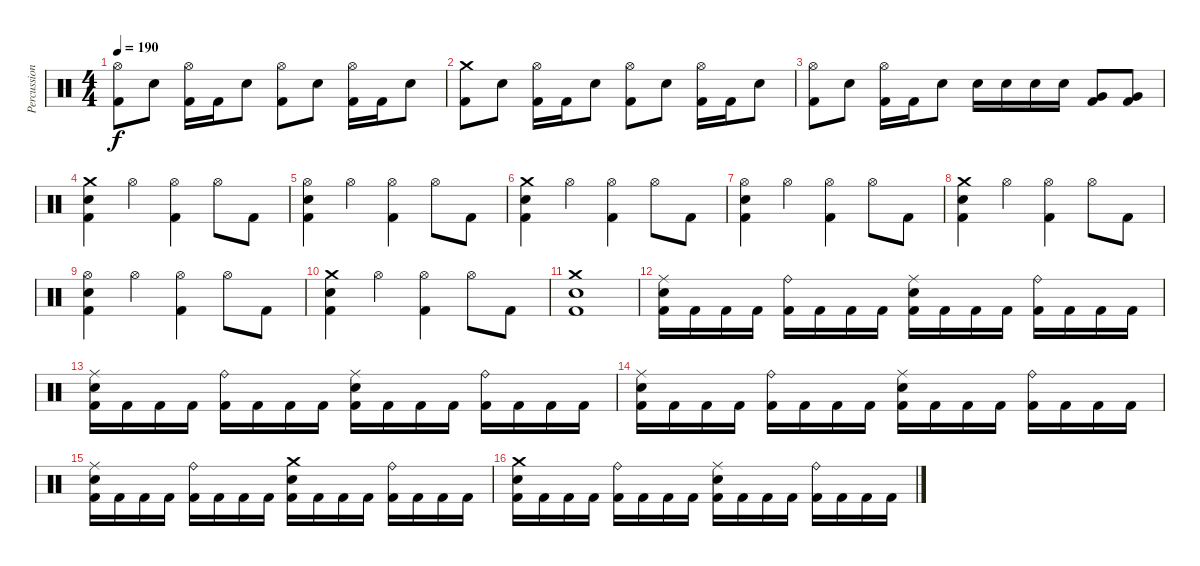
\track ("Percussion" "Percussion") {instrument percussion}
\staff {score}
\articulation defaults
\ts (4 4)
\tempo 190
\clef neutral
\ks c
("Hi-Hat (open)" "Kick (hit) 2").8{dy f} "Snare (hit) 2".8 ("Hi-Hat (open)" "Kick (hit) 2").16 "Kick (hit) 2".16 "Snare (hit) 2".8 ("Hi-Hat (open)" "Kick (hit) 2").8 "Snare (hit) 2".8 ("Hi-Hat (open)" "Kick (hit) 2").16 "Kick (hit) 2".16 "Snare (hit) 2".8 |
("Crash medium (hit)" "Kick (hit) 2").8 "Snare (hit) 2".8 ("Hi-Hat (open)" "Kick (hit) 2").16 "Kick (hit) 2".16 "Snare (hit) 2".8 ("Hi-Hat (open)" "Kick (hit) 2").8 "Snare (hit) 2".8 ("Hi-Hat (open)" "Kick (hit) 2").16 "Kick (hit) 2".16 "Snare (hit) 2".8 |
("Hi-Hat (open)" "Kick (hit) 2").8 "Snare (hit) 2".8 ("Hi-Hat (open)" "Kick (hit) 2").16 "Kick (hit) 2".16 "Snare (hit) 2".8 "Snare (hit) 2".16 "Snare (hit) 2".16 "Snare (hit) 2".16 "Snare (hit) 2".16 ("Very Low Tom (hit)" "Kick (hit) 2").8 ("Very Low Tom (hit)" "Kick (hit) 2").8 |
("Crash medium (hit)" "Snare (hit) 2" "Kick (hit) 2").4 "Hi-Hat (open)".4 ("Hi-Hat (open)" "Kick (hit) 2").4 "Hi-Hat (open)".8 "Kick (hit) 2".8 |
("Hi-Hat (open)" "Snare (hit) 2" "Kick (hit) 2").4 "Hi-Hat (open)".4 ("Hi-Hat (open)" "Kick (hit) 2").4 "Hi-Hat (open)".8 "Kick (hit) 2".8 |
("Crash medium (hit)" "Snare (hit) 2" "Kick (hit) 2").4 "Hi-Hat (open)".4 ("Hi-Hat (open)" "Kick (hit) 2").4 "Hi-Hat (open)".8 "Kick (hit) 2".8 |
("Hi-Hat (open)" "Snare (hit) 2" "Kick (hit) 2").4 "Hi-Hat (open)".4 ("Hi-Hat (open)" "Kick (hit) 2").4 "Hi-Hat (open)".8 "Kick (hit) 2".8 |
("Crash medium (hit)" "Snare (hit) 2" "Kick (hit) 2").4 "Hi-Hat (open)".4 ("Hi-Hat (open)" "Kick (hit) 2").4 "Hi-Hat (open)".8 "Kick (hit) 2".8 |
("Hi-Hat (open)" "Snare (hit) 2" "Kick (hit) 2").4 "Hi-Hat (open)".4 ("Hi-Hat (open)" "Kick (hit) 2").4 "Hi-Hat (open)".8 "Kick (hit) 2".8 |
("Crash medium (hit)" "Snare (hit) 2" "Kick (hit) 2").4 "Hi-Hat (open)".4 ("Hi-Hat (open)" "Kick (hit) 2").4 "Hi-Hat (open)".8 "Kick (hit) 2".8 |
("Crash medium (hit)" "Snare (hit) 2" "Kick (hit) 2").1 |
("Ride (middle)" "Snare (hit) 2" "Kick (hit) 2").16 "Kick (hit) 2".16 "Kick (hit) 2".16 "Kick (hit) 2".16 ("Ride (bell)" "Kick (hit) 2").16 "Kick (hit) 2".16 "Kick (hit) 2".16 "Kick (hit) 2".16 ("Ride (middle)" "Snare (hit) 2" "Kick (hit) 2").16 "Kick (hit) 2".16 "Kick (hit) 2".16 "Kick (hit) 2".16 ("Ride (bell)" "Kick (hit) 2").16 "Kick (hit) 2".16 "Kick (hit) 2".16 "Kick (hit) 2".16 |
("Ride (middle)" "Snare (hit) 2" "Kick (hit) 2").16 "Kick (hit) 2".16 "Kick (hit) 2".16 "Kick (hit) 2".16 ("Ride (bell)" "Kick (hit) 2").16 "Kick (hit) 2".16 "Kick (hit) 2".16 "Kick (hit) 2".16 ("Ride (middle)" "Snare (hit) 2" "Kick (hit) 2").16 "Kick (hit) 2".16 "Kick (hit) 2".16 "Kick (hit) 2".16 ("Ride (bell)" "Kick (hit) 2").16 "Kick (hit) 2".16 "Kick (hit) 2".16 "Kick (hit) 2".16 |
("Ride (middle)" "Snare (hit) 2" "Kick (hit) 2").16 "Kick (hit) 2".16 "Kick (hit) 2".16 "Kick (hit) 2".16 ("Ride (bell)" "Kick (hit) 2").16 "Kick (hit) 2".16 "Kick (hit) 2".16 "Kick (hit) 2".16 ("Ride (middle)" "Snare (hit) 2" "Kick (hit) 2").16 "Kick (hit) 2".16 "Kick (hit) 2".16 "Kick (hit) 2".16 ("Ride (bell)" "Kick (hit) 2").16 "Kick (hit) 2".16 "Kick (hit) 2".16 "Kick (hit) 2".16 |
("Ride (middle)" "Snare (hit) 2" "Kick (hit) 2").16 "Kick (hit) 2".16 "Kick (hit) 2".16 "Kick (hit) 2".16 ("Ride (bell)" "Kick (hit) 2").16 "Kick (hit) 2".16 "Kick (hit) 2".16 "Kick (hit) 2".16 ("Crash medium (hit)" "Snare (hit) 2" "Kick (hit) 2").16 "Kick (hit) 2".16 "Kick (hit) 2".16 "Kick (hit) 2".16 ("Ride (bell)" "Kick (hit) 2").16 "Kick (hit) 2".16 "Kick (hit) 2".16 "Kick (hit) 2".16 |
("Crash medium (hit)" "Snare (hit) 2" "Kick (hit) 2").16 "Kick (hit) 2".16 "Kick (hit) 2".16 "Kick (hit) 2".16 ("Ride (bell)" "Kick (hit) 2").16 "Kick (hit) 2".16 "Kick (hit) 2".16 "Kick (hit) 2".16 ("Ride (middle)" "Snare (hit) 2" "Kick (hit) 2").16 "Kick (hit) 2".16 "Kick (hit) 2".16 "Kick (hit) 2".16 ("Ride (bell)" "Kick (hit) 2").16 "Kick (hit) 2".16 "Kick (hit) 2".16 "Kick (hit) 2".16
